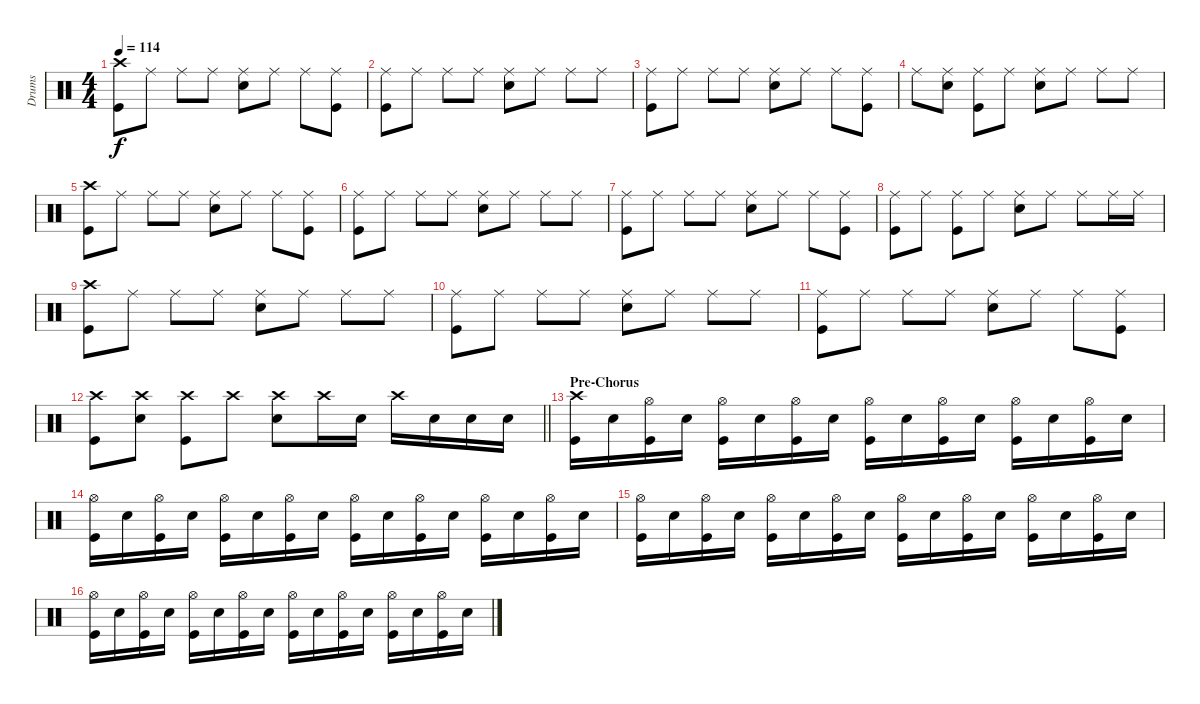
\track ("Drums" "Drums") {instrument percussion}
\staff {score}
\articulation defaults
\ts (4 4)
\tempo 114
\clef neutral
\ks c
("Crash high (hit)" "Kick (hit)").8{dy f} "Ride (middle)".8 "Ride (middle)".8 "Ride (middle)".8 ("Ride (middle)" "Snare (hit) 2").8 "Ride (middle)".8 "Ride (middle)".8 ("Ride (middle)" "Kick (hit)").8 |
("Ride (middle)" "Kick (hit)").8 "Ride (middle)".8 "Ride (middle)".8 "Ride (middle)".8 ("Ride (middle)" "Snare (hit) 2").8 "Ride (middle)".8 "Ride (middle)".8 "Ride (middle)".8 |
("Ride (middle)" "Kick (hit)").8 "Ride (middle)".8 "Ride (middle)".8 "Ride (middle)".8 ("Ride (middle)" "Snare (hit) 2").8 "Ride (middle)".8 "Ride (middle)".8 ("Ride (middle)" "Kick (hit)").8 |
"Ride (middle)".8 ("Ride (middle)" "Snare (hit) 2").8 ("Ride (middle)" "Kick (hit)").8 "Ride (middle)".8 ("Ride (middle)" "Snare (hit) 2").8 "Ride (middle)".8 "Ride (middle)".8 "Ride (middle)".8 |
("Crash high (hit)" "Kick (hit)").8 "Ride (middle)".8 "Ride (middle)".8 "Ride (middle)".8 ("Ride (middle)" "Snare (hit) 2").8 "Ride (middle)".8 "Ride (middle)".8 ("Ride (middle)" "Kick (hit)").8 |
("Ride (middle)" "Kick (hit)").8 "Ride (middle)".8 "Ride (middle)".8 "Ride (middle)".8 ("Ride (middle)" "Snare (hit) 2").8 "Ride (middle)".8 "Ride (middle)".8 "Ride (middle)".8 |
("Ride (middle)" "Kick (hit)").8 "Ride (middle)".8 "Ride (middle)".8 "Ride (middle)".8 ("Ride (middle)" "Snare (hit) 2").8 "Ride (middle)".8 "Ride (middle)".8 ("Ride (middle)" "Kick (hit)").8 |
("Ride (middle)" "Kick (hit)").8 "Ride (middle)".8 ("Ride (middle)" "Kick (hit)").8 "Ride (middle)".8 ("Ride (middle)" "Snare (hit) 2").8 "Ride (middle)".8 "Ride (middle)".8 "Ride (middle)".16 "Ride (middle)".16 |
("Crash high (hit)" "Kick (hit)").8 "Ride (middle)".8 "Ride (middle)".8 "Ride (middle)".8 ("Ride (middle)" "Snare (hit) 2").8 "Ride (middle)".8 "Ride (middle)".8 "Ride (middle)".8 |
("Ride (middle)" "Kick (hit)").8 "Ride (middle)".8 "Ride (middle)".8 "Ride (middle)".8 ("Ride (middle)" "Snare (hit) 2").8 "Ride (middle)".8 "Ride (middle)".8 "Ride (middle)".8 |
("Ride (middle)" "Kick (hit)").8 "Ride (middle)".8 "Ride (middle)".8 "Ride (middle)".8 ("Ride (middle)" "Snare (hit) 2").8 "Ride (middle)".8 "Ride (middle)".8 ("Ride (middle)" "Kick (hit)").8 |
\barLineRight lightlight
("Crash high (hit)" "Kick (hit)").8 ("Crash high (hit)" "Snare (hit) 2").8 ("Crash high (hit)" "Kick (hit)").8 "Crash high (hit)".8 ("Crash high (hit)" "Snare (hit) 2").8 "Crash high (hit)".16 "Snare (hit) 2".16 "Crash high (hit)".16 "Snare (hit) 2".16 "Snare (hit) 2".16 "Snare (hit) 2".16 |
\section ("" "Pre-Chorus")
("Crash high (hit)" "Kick (hit)").16 "Snare (hit) 2".16 ("Hi-Hat (open)" "Kick (hit)").16 "Snare (hit) 2".16 ("Hi-Hat (open)" "Kick (hit)").16 "Snare (hit) 2".16 ("Hi-Hat (open)" "Kick (hit)").16 "Snare (hit) 2".16 ("Hi-Hat (open)" "Kick (hit)").16 "Snare (hit) 2".16 ("Hi-Hat (open)" "Kick (hit)").16 "Snare (hit) 2".16 ("Hi-Hat (open)" "Kick (hit)").16 "Snare (hit) 2".16 ("Hi-Hat (open)" "Kick (hit)").16 "Snare (hit) 2".16 |
("Hi-Hat (open)" "Kick (hit)").16 "Snare (hit) 2".16 ("Hi-Hat (open)" "Kick (hit)").16 "Snare (hit) 2".16 ("Hi-Hat (open)" "Kick (hit)").16 "Snare (hit) 2".16 ("Hi-Hat (open)" "Kick (hit)").16 "Snare (hit) 2".16 ("Hi-Hat (open)" "Kick (hit)").16 "Snare (hit) 2".16 ("Hi-Hat (open)" "Kick (hit)").16 "Snare (hit) 2".16 ("Hi-Hat (open)" "Kick (hit)").16 "Snare (hit) 2".16 ("Hi-Hat (open)" "Kick (hit)").16 "Snare (hit) 2".16 |
("Hi-Hat (open)" "Kick (hit)").16 "Snare (hit) 2".16 ("Hi-Hat (open)" "Kick (hit)").16 "Snare (hit) 2".16 ("Hi-Hat (open)" "Kick (hit)").16 "Snare (hit) 2".16 ("Hi-Hat (open)" "Kick (hit)").16 "Snare (hit) 2".16 ("Hi-Hat (open)" "Kick (hit)").16 "Snare (hit) 2".16 ("Hi-Hat (open)" "Kick (hit)").16 "Snare (hit) 2".16 ("Hi-Hat (open)" "Kick (hit)").16 "Snare (hit) 2".16 ("Hi-Hat (open)" "Kick (hit)").16 "Snare (hit) 2".16 |
("Hi-Hat (open)" "Kick (hit)").16 "Snare (hit) 2".16 ("Hi-Hat (open)" "Kick (hit)").16 "Snare (hit) 2".16 ("Hi-Hat (open)" "Kick (hit)").16 "Snare (hit) 2".16 ("Hi-Hat (open)" "Kick (hit)").16 "Snare (hit) 2".16 ("Hi-Hat (open)" "Kick (hit)").16 "Snare (hit) 2".16 ("Hi-Hat (open)" "Kick (hit)").16 "Snare (hit) 2".16 ("Hi-Hat (open)" "Kick (hit)").16 "Snare (hit) 2".16 ("Hi-Hat (open)" "Kick (hit)").16 "Snare (hit) 2".16
